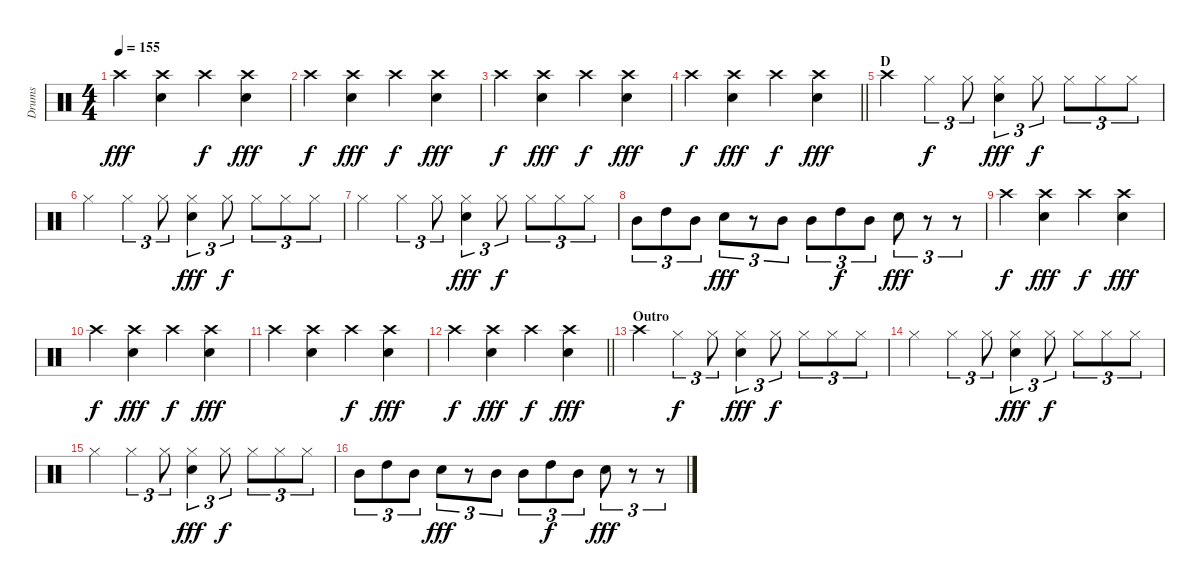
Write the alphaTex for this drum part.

\track ("Drums" "Drums") {instrument percussion}
\staff {score}
\articulation defaults
\ts (4 4)
\tempo 155
\clef neutral
\ks c "Crash high (hit)".4{dy fff}
("Crash high (hit)" "Electric Snare (hit)").4 "Crash high (hit)".4{dy f} ("Crash high (hit)" "Electric Snare (hit)").4{dy fff} |
"Crash high (hit)".4{dy f} ("Crash high (hit)" "Electric Snare (hit)").4{dy fff} "Crash high (hit)".4{dy f} ("Crash high (hit)" "Electric Snare (hit)").4{dy fff} |
"Crash high (hit)".4{dy f} ("Crash high (hit)" "Electric Snare (hit)").4{dy fff} "Crash high (hit)".4{dy f} ("Crash high (hit)" "Electric Snare (hit)").4{dy fff} |
\barLineRight lightlight "Crash high (hit)".4{dy f}
("Crash high (hit)" "Electric Snare (hit)").4{dy fff} "Crash high (hit)".4{dy f} ("Crash high (hit)" "Electric Snare (hit)").4{dy fff} |
\section ("" "D")
"Crash high (hit)".4 "Hi-Hat (closed)".4{tu (3 2) dy f} "Hi-Hat (closed)".8{tu (3 2)} ("Hi-Hat (closed)" "Electric Snare (hit)").4{tu (3 2) dy fff} "Hi-Hat (closed)".8{tu (3 2) dy f} "Hi-Hat (closed)".8{tu (3 2)} "Hi-Hat (closed)".8{tu (3 2)} "Hi-Hat (closed)".8{tu (3 2)} |
"Hi-Hat (closed)".4 "Hi-Hat (closed)".4{tu (3 2)} "Hi-Hat (closed)".8{tu (3 2)} ("Hi-Hat (closed)" "Electric Snare (hit)").4{tu (3 2) dy fff} "Hi-Hat (closed)".8{tu (3 2) dy f} "Hi-Hat (closed)".8{tu (3 2)} "Hi-Hat (closed)".8{tu (3 2)} "Hi-Hat (closed)".8{tu (3 2)} |
"Hi-Hat (closed)".4 "Hi-Hat (closed)".4{tu (3 2)} "Hi-Hat (closed)".8{tu (3 2)} ("Hi-Hat (closed)" "Electric Snare (hit)").4{tu (3 2) dy fff} "Hi-Hat (closed)".8{tu (3 2) dy f} "Hi-Hat (closed)".8{tu (3 2)} "Hi-Hat (closed)".8{tu (3 2)} "Hi-Hat (closed)".8{tu (3 2)} |
"Mid Tom (hit)".8{tu (3 2)} "High Tom (hit)".8{tu (3 2)} "Mid Tom (hit)".8{tu (3 2)} "Electric Snare (hit)".8{tu (3 2) dy fff} r.8{tu (3 2)} "Mid Tom (hit)".8{tu (3 2)} "Mid Tom (hit)".8{tu (3 2)} "High Tom (hit)".8{tu (3 2) dy f} "Mid Tom (hit)".8{tu (3 2)} "Electric Snare (hit)".8{tu (3 2) dy fff} r.8{tu (3 2)} r.8{tu (3 2)} |
"Crash high (hit)".4{dy f} ("Crash high (hit)" "Electric Snare (hit)").4{dy fff} "Crash high (hit)".4{dy f} ("Crash high (hit)" "Electric Snare (hit)").4{dy fff} |
"Crash high (hit)".4{dy f} ("Crash high (hit)" "Electric Snare (hit)").4{dy fff} "Crash high (hit)".4{dy f} ("Crash high (hit)" "Electric Snare (hit)").4{dy fff} |
"Crash high (hit)".4 ("Crash high (hit)" "Electric Snare (hit)").4 "Crash high (hit)".4{dy f} ("Crash high (hit)" "Electric Snare (hit)").4{dy fff} |
\barLineRight lightlight "Crash high (hit)".4{dy f}
("Crash high (hit)" "Electric Snare (hit)").4{dy fff} "Crash high (hit)".4{dy f} ("Crash high (hit)" "Electric Snare (hit)").4{dy fff} |
\section ("" "Outro")
"Crash high (hit)".4 "Hi-Hat (closed)".4{tu (3 2) dy f} "Hi-Hat (closed)".8{tu (3 2)} ("Hi-Hat (closed)" "Electric Snare (hit)").4{tu (3 2) dy fff} "Hi-Hat (closed)".8{tu (3 2) dy f} "Hi-Hat (closed)".8{tu (3 2)} "Hi-Hat (closed)".8{tu (3 2)} "Hi-Hat (closed)".8{tu (3 2)} |
"Hi-Hat (closed)".4 "Hi-Hat (closed)".4{tu (3 2)} "Hi-Hat (closed)".8{tu (3 2)} ("Hi-Hat (closed)" "Electric Snare (hit)").4{tu (3 2) dy fff} "Hi-Hat (closed)".8{tu (3 2) dy f} "Hi-Hat (closed)".8{tu (3 2)} "Hi-Hat (closed)".8{tu (3 2)} "Hi-Hat (closed)".8{tu (3 2)} |
"Hi-Hat (closed)".4 "Hi-Hat (closed)".4{tu (3 2)} "Hi-Hat (closed)".8{tu (3 2)} ("Hi-Hat (closed)" "Electric Snare (hit)").4{tu (3 2) dy fff} "Hi-Hat (closed)".8{tu (3 2) dy f} "Hi-Hat (closed)".8{tu (3 2)} "Hi-Hat (closed)".8{tu (3 2)} "Hi-Hat (closed)".8{tu (3 2)} |
"Mid Tom (hit)".8{tu (3 2)} "High Tom (hit)".8{tu (3 2)} "Mid Tom (hit)".8{tu (3 2)} "Electric Snare (hit)".8{tu (3 2) dy fff} r.8{tu (3 2)} "Mid Tom (hit)".8{tu (3 2)} "Mid Tom (hit)".8{tu (3 2)} "High Tom (hit)".8{tu (3 2) dy f} "Mid Tom (hit)".8{tu (3 2)} "Electric Snare (hit)".8{tu (3 2) dy fff} r.8{tu (3 2)} r.8{tu (3 2)}
